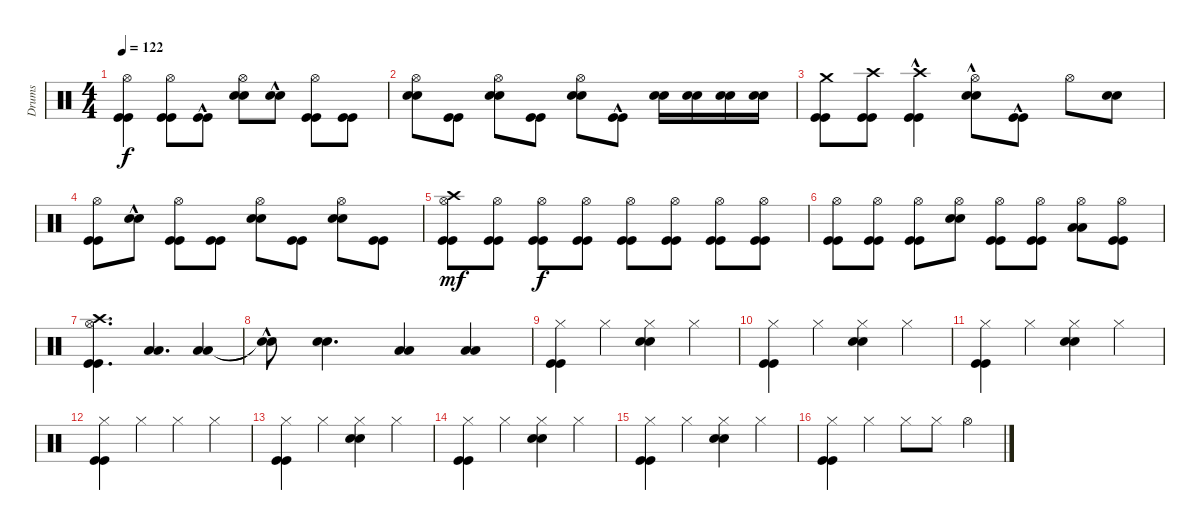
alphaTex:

\track ("Drums" "Drums") {instrument percussion}
\staff {score}
\articulation defaults
\ts (4 4)
\tempo 122
\clef neutral
\ks c
("Kick (hit)" "Kick (hit)" "Hi-Hat (open)").4{dy f} ("Kick (hit)" "Kick (hit)" "Hi-Hat (open)").8 ("Kick (hit)"{hac} "Kick (hit)"{hac}).8 ("Snare (hit) 2" "Snare (hit) 2" "Hi-Hat (open)").8 ("Snare (hit) 2"{hac} "Snare (hit) 2"{hac}).8 ("Kick (hit)" "Kick (hit)" "Hi-Hat (open)").8 ("Kick (hit)" "Kick (hit)").8 |
("Snare (hit) 2" "Snare (hit) 2" "Hi-Hat (open)").8 ("Kick (hit)" "Kick (hit)").8 ("Snare (hit) 2" "Snare (hit) 2" "Hi-Hat (open)").8 ("Kick (hit)" "Kick (hit)").8 ("Snare (hit) 2" "Snare (hit) 2" "Hi-Hat (open)").8 ("Kick (hit)"{hac} "Kick (hit)"{hac}).8 ("Snare (hit) 2" "Snare (hit) 2").16 ("Snare (hit) 2" "Snare (hit) 2").16 ("Snare (hit) 2" "Snare (hit) 2").16 ("Snare (hit) 2" "Snare (hit) 2").16 |
("Kick (hit)" "Kick (hit)" "Crash medium (hit)").8 ("Kick (hit)" "Kick (hit)" "Crash high (hit)").8 ("Kick (hit)"{hac} "Kick (hit)"{hac} "Crash high (hit)").4 ("Snare (hit) 2"{hac} "Snare (hit) 2"{hac} "Hi-Hat (open)").8 ("Kick (hit)"{hac} "Kick (hit)"{hac}).8 "Hi-Hat (open)".8 ("Snare (hit) 2" "Snare (hit) 2").8 |
("Kick (hit)" "Kick (hit)" "Hi-Hat (open)").8 ("Snare (hit) 2"{hac} "Snare (hit) 2"{hac}).8 ("Kick (hit)" "Kick (hit)" "Hi-Hat (open)").8 ("Kick (hit)" "Kick (hit)").8 ("Snare (hit) 2" "Snare (hit) 2" "Hi-Hat (open)").8 ("Kick (hit)" "Kick (hit)").8 ("Snare (hit) 2" "Snare (hit) 2" "Hi-Hat (open)").8 ("Kick (hit)" "Kick (hit)").8 |
("Kick (hit)" "Kick (hit)" "Hi-Hat (open)" "Crash high (hit)").8{dy mf} ("Kick (hit)" "Kick (hit)" "Hi-Hat (open)").8 ("Kick (hit)" "Kick (hit)" "Hi-Hat (open)").8{dy f} ("Kick (hit)" "Kick (hit)" "Hi-Hat (open)").8 ("Kick (hit)" "Kick (hit)" "Hi-Hat (open)").8 ("Kick (hit)" "Kick (hit)" "Hi-Hat (open)").8 ("Kick (hit)" "Kick (hit)" "Hi-Hat (open)").8 ("Kick (hit)" "Kick (hit)" "Hi-Hat (open)").8 |
("Kick (hit)" "Kick (hit)" "Hi-Hat (open)").8 ("Kick (hit)" "Kick (hit)" "Hi-Hat (open)").8 ("Kick (hit)" "Kick (hit)" "Hi-Hat (open)").8 ("Snare (hit) 2" "Snare (hit) 2" "Hi-Hat (open)").8 ("Kick (hit)" "Kick (hit)" "Hi-Hat (open)").8 ("Kick (hit)" "Kick (hit)" "Hi-Hat (open)").8 ("Low Tom (hit)" "Low Tom (hit)" "Hi-Hat (open)").8 ("Kick (hit)" "Kick (hit)" "Hi-Hat (open)").8 |
("Kick (hit)" "Kick (hit)" "Hi-Hat (open)" "Crash high (hit)").4{d} ("Low Tom (hit)" "Low Tom (hit)").4{d} ("Low Floor Tom (hit)" "Low Floor Tom (hit)").4 |
("Snare (hit)"{hac t} "Snare (hit)"{hac t}).8 ("Snare (hit) 2" "Snare (hit) 2").4{d} ("Low Tom (hit)" "Low Tom (hit)").4 ("Low Floor Tom (hit)" "Low Floor Tom (hit)").4 |
("Kick (hit)" "Kick (hit)" "Hi-Hat (closed)").4 "Hi-Hat (closed)".4 ("Snare (hit) 2" "Snare (hit) 2" "Hi-Hat (closed)").4 "Hi-Hat (closed)".4 |
("Kick (hit)" "Kick (hit)" "Hi-Hat (closed)").4 "Hi-Hat (closed)".4 ("Snare (hit) 2" "Snare (hit) 2" "Hi-Hat (closed)").4 "Hi-Hat (closed)".4 |
("Kick (hit)" "Kick (hit)" "Hi-Hat (closed)").4 "Hi-Hat (closed)".4 ("Snare (hit) 2" "Snare (hit) 2" "Hi-Hat (closed)").4 "Hi-Hat (closed)".4 |
("Kick (hit)" "Kick (hit)" "Hi-Hat (closed)").4 "Hi-Hat (closed)".4 "Hi-Hat (closed)".4 "Hi-Hat (closed)".4 |
("Kick (hit)" "Kick (hit)" "Hi-Hat (closed)").4 "Hi-Hat (closed)".4 ("Snare (hit) 2" "Snare (hit) 2" "Hi-Hat (closed)").4 "Hi-Hat (closed)".4 |
("Kick (hit)" "Kick (hit)" "Hi-Hat (closed)").4 "Hi-Hat (closed)".4 ("Snare (hit) 2" "Snare (hit) 2" "Hi-Hat (closed)").4 "Hi-Hat (closed)".4 |
("Kick (hit)" "Kick (hit)" "Hi-Hat (closed)").4 "Hi-Hat (closed)".4 ("Snare (hit) 2" "Snare (hit) 2" "Hi-Hat (closed)").4 "Hi-Hat (closed)".4 |
("Kick (hit)" "Kick (hit)" "Hi-Hat (closed)").4 "Hi-Hat (closed)".4 "Hi-Hat (closed)".8 "Hi-Hat (closed)".8 "Hi-Hat (open)".4
